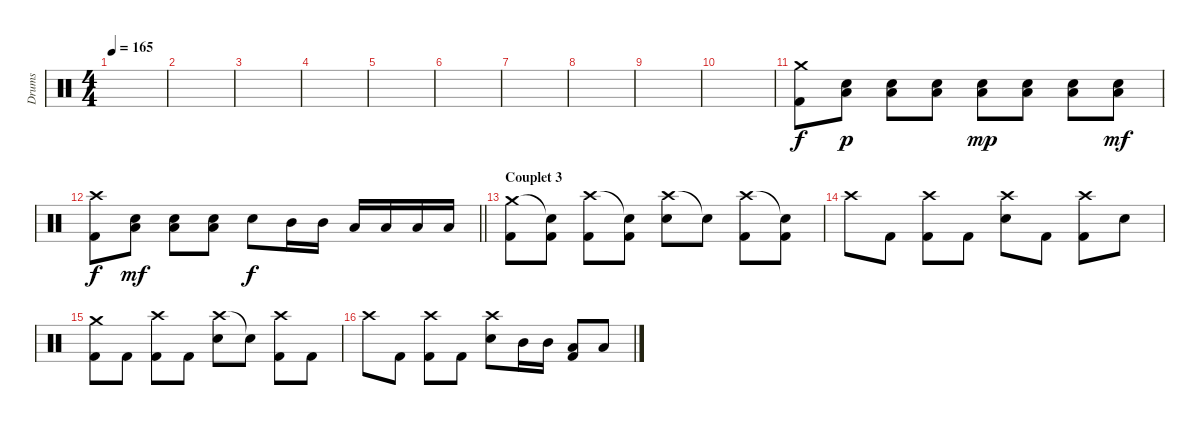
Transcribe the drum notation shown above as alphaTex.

\track ("Drums" "Drums") {instrument percussion}
\staff {score}
\articulation defaults
\ts (4 4)
\tempo 165
\clef neutral
\ks c
|
|
|
|
|
|
|
|
|
|
("Crash medium (hit)" "Kick (hit) 2").8 ("Electric Snare (hit)" "Low Floor Tom (hit)").8{dy p} ("Electric Snare (hit)" "Low Floor Tom (hit)").8 ("Electric Snare (hit)" "Low Floor Tom (hit)").8 ("Electric Snare (hit)" "Low Floor Tom (hit)").8{dy mp} ("Electric Snare (hit)" "Low Floor Tom (hit)").8 ("Electric Snare (hit)" "Low Floor Tom (hit)").8 ("Electric Snare (hit)" "Low Floor Tom (hit)").8{dy mf} |
\barLineRight lightlight
("Crash high (hit)" "Kick (hit) 2").8{dy f} ("Electric Snare (hit)" "Low Floor Tom (hit)").8{dy mf} ("Electric Snare (hit)" "Low Floor Tom (hit)").8 ("Electric Snare (hit)" "Low Floor Tom (hit)").8 "Electric Snare (hit)".8{dy f} "Mid Tom (hit)".16 "Mid Tom (hit)".16 "Low Tom (hit)".16 "Low Tom (hit)".16 "Low Floor Tom (hit)".16 "Low Floor Tom (hit)".16 |
\section ("" "Couplet 3")
("Crash medium (hit)" "Kick (hit) 2").8 ("Snare (hit)"{t} "Kick (hit) 2").8 ("Crash high (hit)" "Kick (hit) 2").8 ("Snare (hit)"{t} "Kick (hit) 2").8 ("Crash high (hit)" "Electric Snare (hit)").8 "Snare (hit)"{t}.8 ("Crash high (hit)" "Kick (hit) 2").8 ("Snare (hit)"{t} "Kick (hit) 2").8 |
"Crash high (hit)".8 "Kick (hit) 2".8 ("Crash high (hit)" "Kick (hit) 2").8 "Kick (hit) 2".8 ("Crash high (hit)" "Electric Snare (hit)").8 "Kick (hit) 2".8 ("Crash high (hit)" "Kick (hit) 2").8 "Electric Snare (hit)".8 |
("Crash medium (hit)" "Kick (hit) 2").8 "Kick (hit) 2".8 ("Crash high (hit)" "Kick (hit) 2").8 "Kick (hit) 2".8 ("Crash high (hit)" "Electric Snare (hit)").8 "Snare (hit)"{t}.8 ("Crash high (hit)" "Kick (hit) 2").8 "Kick (hit) 2".8 |
"Crash high (hit)".8 "Kick (hit) 2".8 ("Crash high (hit)" "Kick (hit) 2").8 "Kick (hit) 2".8 ("Crash high (hit)" "Electric Snare (hit)").8 "Mid Tom (hit)".16 "Mid Tom (hit)".16 ("Low Tom (hit)" "Kick (hit) 2").8 "Low Floor Tom (hit)".8
